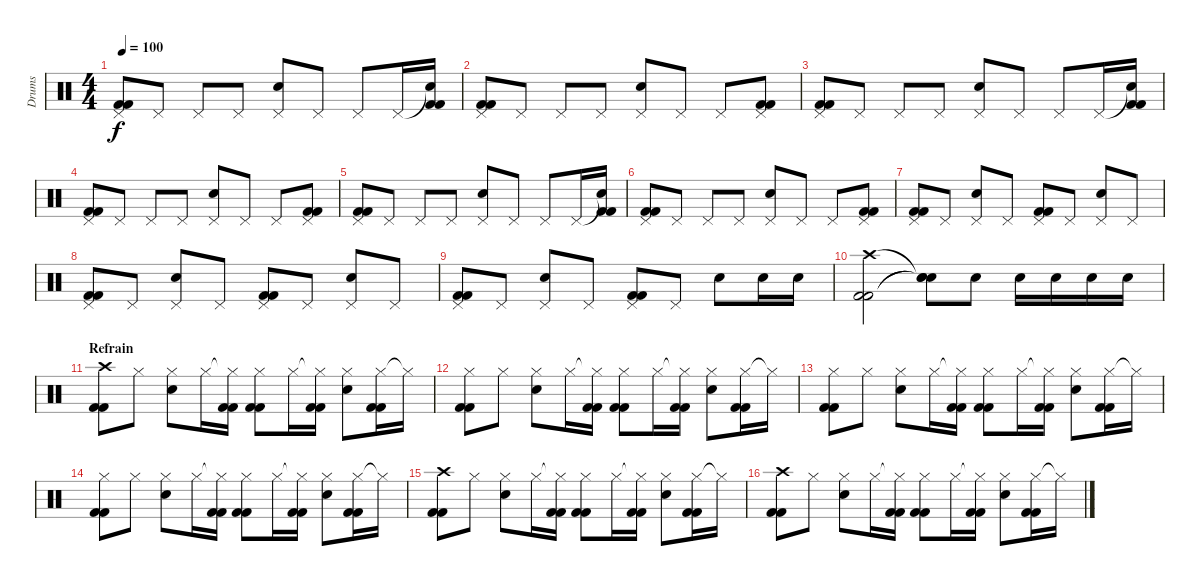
\track ("Drums" "Drums") {instrument percussion}
\staff {score}
\articulation defaults
\ts (4 4)
\tempo 100
\clef neutral
\ks c
("Pedal Hi-Hat (hit)" "Kick (hit) 2" "Kick (hit) 2").8{dy f} "Pedal Hi-Hat (hit)".8 "Pedal Hi-Hat (hit)".8 "Pedal Hi-Hat (hit)".8 ("Pedal Hi-Hat (hit)" "Electric Snare (hit)").8 "Pedal Hi-Hat (hit)".8 "Pedal Hi-Hat (hit)".8 "Pedal Hi-Hat (hit)".16 ("Snare (hit)"{t} "Kick (hit) 2" "Kick (hit) 2").16 |
("Pedal Hi-Hat (hit)" "Kick (hit) 2" "Kick (hit) 2").8 "Pedal Hi-Hat (hit)".8 "Pedal Hi-Hat (hit)".8 "Pedal Hi-Hat (hit)".8 ("Pedal Hi-Hat (hit)" "Electric Snare (hit)").8 "Pedal Hi-Hat (hit)".8 "Pedal Hi-Hat (hit)".8 ("Pedal Hi-Hat (hit)" "Kick (hit) 2" "Kick (hit) 2").8 |
("Pedal Hi-Hat (hit)" "Kick (hit) 2" "Kick (hit) 2").8 "Pedal Hi-Hat (hit)".8 "Pedal Hi-Hat (hit)".8 "Pedal Hi-Hat (hit)".8 ("Pedal Hi-Hat (hit)" "Electric Snare (hit)").8 "Pedal Hi-Hat (hit)".8 "Pedal Hi-Hat (hit)".8 "Pedal Hi-Hat (hit)".16 ("Snare (hit)"{t} "Kick (hit) 2" "Kick (hit) 2").16 |
("Pedal Hi-Hat (hit)" "Kick (hit) 2" "Kick (hit) 2").8 "Pedal Hi-Hat (hit)".8 "Pedal Hi-Hat (hit)".8 "Pedal Hi-Hat (hit)".8 ("Pedal Hi-Hat (hit)" "Electric Snare (hit)").8 "Pedal Hi-Hat (hit)".8 "Pedal Hi-Hat (hit)".8 ("Pedal Hi-Hat (hit)" "Kick (hit) 2" "Kick (hit) 2").8 |
("Pedal Hi-Hat (hit)" "Kick (hit) 2" "Kick (hit) 2").8 "Pedal Hi-Hat (hit)".8 "Pedal Hi-Hat (hit)".8 "Pedal Hi-Hat (hit)".8 ("Pedal Hi-Hat (hit)" "Electric Snare (hit)").8 "Pedal Hi-Hat (hit)".8 "Pedal Hi-Hat (hit)".8 "Pedal Hi-Hat (hit)".16 ("Snare (hit)"{t} "Kick (hit) 2" "Kick (hit) 2").16 |
("Pedal Hi-Hat (hit)" "Kick (hit) 2" "Kick (hit) 2").8 "Pedal Hi-Hat (hit)".8 "Pedal Hi-Hat (hit)".8 "Pedal Hi-Hat (hit)".8 ("Pedal Hi-Hat (hit)" "Electric Snare (hit)").8 "Pedal Hi-Hat (hit)".8 "Pedal Hi-Hat (hit)".8 ("Pedal Hi-Hat (hit)" "Kick (hit) 2" "Kick (hit) 2").8 |
("Pedal Hi-Hat (hit)" "Kick (hit) 2" "Kick (hit) 2").8 "Pedal Hi-Hat (hit)".8 ("Pedal Hi-Hat (hit)" "Electric Snare (hit)").8 "Pedal Hi-Hat (hit)".8 ("Pedal Hi-Hat (hit)" "Kick (hit) 2" "Kick (hit) 2").8 "Pedal Hi-Hat (hit)".8 ("Pedal Hi-Hat (hit)" "Electric Snare (hit)").8 "Pedal Hi-Hat (hit)".8 |
("Pedal Hi-Hat (hit)" "Kick (hit) 2" "Kick (hit) 2").8 "Pedal Hi-Hat (hit)".8 ("Pedal Hi-Hat (hit)" "Electric Snare (hit)").8 "Pedal Hi-Hat (hit)".8 ("Pedal Hi-Hat (hit)" "Kick (hit) 2" "Kick (hit) 2").8 "Pedal Hi-Hat (hit)".8 ("Pedal Hi-Hat (hit)" "Electric Snare (hit)").8 "Pedal Hi-Hat (hit)".8 |
("Pedal Hi-Hat (hit)" "Kick (hit) 2" "Kick (hit) 2").8 "Pedal Hi-Hat (hit)".8 ("Pedal Hi-Hat (hit)" "Electric Snare (hit)").8 "Pedal Hi-Hat (hit)".8 ("Pedal Hi-Hat (hit)" "Kick (hit) 2" "Kick (hit) 2").8 "Pedal Hi-Hat (hit)".8 "Electric Snare (hit)".8 "Electric Snare (hit)".16 "Electric Snare (hit)".16 |
("Crash high (hit)" "Kick (hit) 2" "Kick (hit) 2").2 ("Snare (hit)"{t} "Snare (hit)"{t} "Snare (hit)"{t}).8 "Electric Snare (hit)".8 "Electric Snare (hit)".16 "Electric Snare (hit)".16 "Electric Snare (hit)".16 "Electric Snare (hit)".16 |
\section ("" "Refrain")
("Crash high (hit)" "Kick (hit) 2" "Kick (hit) 2").8 "Hi-Hat (closed)".8 ("Hi-Hat (closed)" "Electric Snare (hit)").8 "Hi-Hat (closed)".16 ("Hi-Hat (closed)"{t} "Kick (hit) 2" "Kick (hit) 2").16 ("Hi-Hat (closed)" "Kick (hit) 2" "Kick (hit) 2").8 "Hi-Hat (closed)".16 ("Hi-Hat (closed)"{t} "Kick (hit) 2" "Kick (hit) 2").16 ("Hi-Hat (closed)" "Electric Snare (hit)").8 ("Hi-Hat (closed)" "Kick (hit) 2" "Kick (hit) 2").16 "Hi-Hat (closed)"{t}.16 |
("Hi-Hat (closed)" "Kick (hit) 2" "Kick (hit) 2").8 "Hi-Hat (closed)".8 ("Hi-Hat (closed)" "Electric Snare (hit)").8 "Hi-Hat (closed)".16 ("Hi-Hat (closed)"{t} "Kick (hit) 2" "Kick (hit) 2").16 ("Hi-Hat (closed)" "Kick (hit) 2" "Kick (hit) 2").8 "Hi-Hat (closed)".16 ("Hi-Hat (closed)"{t} "Kick (hit) 2" "Kick (hit) 2").16 ("Hi-Hat (closed)" "Electric Snare (hit)").8 ("Hi-Hat (closed)" "Kick (hit) 2" "Kick (hit) 2").16 "Hi-Hat (closed)"{t}.16 |
("Hi-Hat (closed)" "Kick (hit) 2" "Kick (hit) 2").8 "Hi-Hat (closed)".8 ("Hi-Hat (closed)" "Electric Snare (hit)").8 "Hi-Hat (closed)".16 ("Hi-Hat (closed)"{t} "Kick (hit) 2" "Kick (hit) 2").16 ("Hi-Hat (closed)" "Kick (hit) 2" "Kick (hit) 2").8 "Hi-Hat (closed)".16 ("Hi-Hat (closed)"{t} "Kick (hit) 2" "Kick (hit) 2").16 ("Hi-Hat (closed)" "Electric Snare (hit)").8 ("Hi-Hat (closed)" "Kick (hit) 2" "Kick (hit) 2").16 "Hi-Hat (closed)"{t}.16 |
("Hi-Hat (closed)" "Kick (hit) 2" "Kick (hit) 2").8 "Hi-Hat (closed)".8 ("Hi-Hat (closed)" "Electric Snare (hit)").8 "Hi-Hat (closed)".16 ("Hi-Hat (closed)"{t} "Kick (hit) 2" "Kick (hit) 2").16 ("Hi-Hat (closed)" "Kick (hit) 2" "Kick (hit) 2").8 "Hi-Hat (closed)".16 ("Hi-Hat (closed)"{t} "Kick (hit) 2" "Kick (hit) 2").16 ("Hi-Hat (closed)" "Electric Snare (hit)").8 ("Hi-Hat (closed)" "Kick (hit) 2" "Kick (hit) 2").16 "Hi-Hat (closed)"{t}.16 |
("Crash high (hit)" "Kick (hit) 2" "Kick (hit) 2").8 "Hi-Hat (closed)".8 ("Hi-Hat (closed)" "Electric Snare (hit)").8 "Hi-Hat (closed)".16 ("Hi-Hat (closed)"{t} "Kick (hit) 2" "Kick (hit) 2").16 ("Hi-Hat (closed)" "Kick (hit) 2" "Kick (hit) 2").8 "Hi-Hat (closed)".16 ("Hi-Hat (closed)"{t} "Kick (hit) 2" "Kick (hit) 2").16 ("Hi-Hat (closed)" "Electric Snare (hit)").8 ("Hi-Hat (closed)" "Kick (hit) 2" "Kick (hit) 2").16 "Hi-Hat (closed)"{t}.16 |
("Crash high (hit)" "Kick (hit) 2" "Kick (hit) 2").8 "Hi-Hat (closed)".8 ("Hi-Hat (closed)" "Electric Snare (hit)").8 "Hi-Hat (closed)".16 ("Hi-Hat (closed)"{t} "Kick (hit) 2" "Kick (hit) 2").16 ("Hi-Hat (closed)" "Kick (hit) 2" "Kick (hit) 2").8 "Hi-Hat (closed)".16 ("Hi-Hat (closed)"{t} "Kick (hit) 2" "Kick (hit) 2").16 ("Hi-Hat (closed)" "Electric Snare (hit)").8 ("Hi-Hat (closed)" "Kick (hit) 2" "Kick (hit) 2").16 "Hi-Hat (closed)"{t}.16
